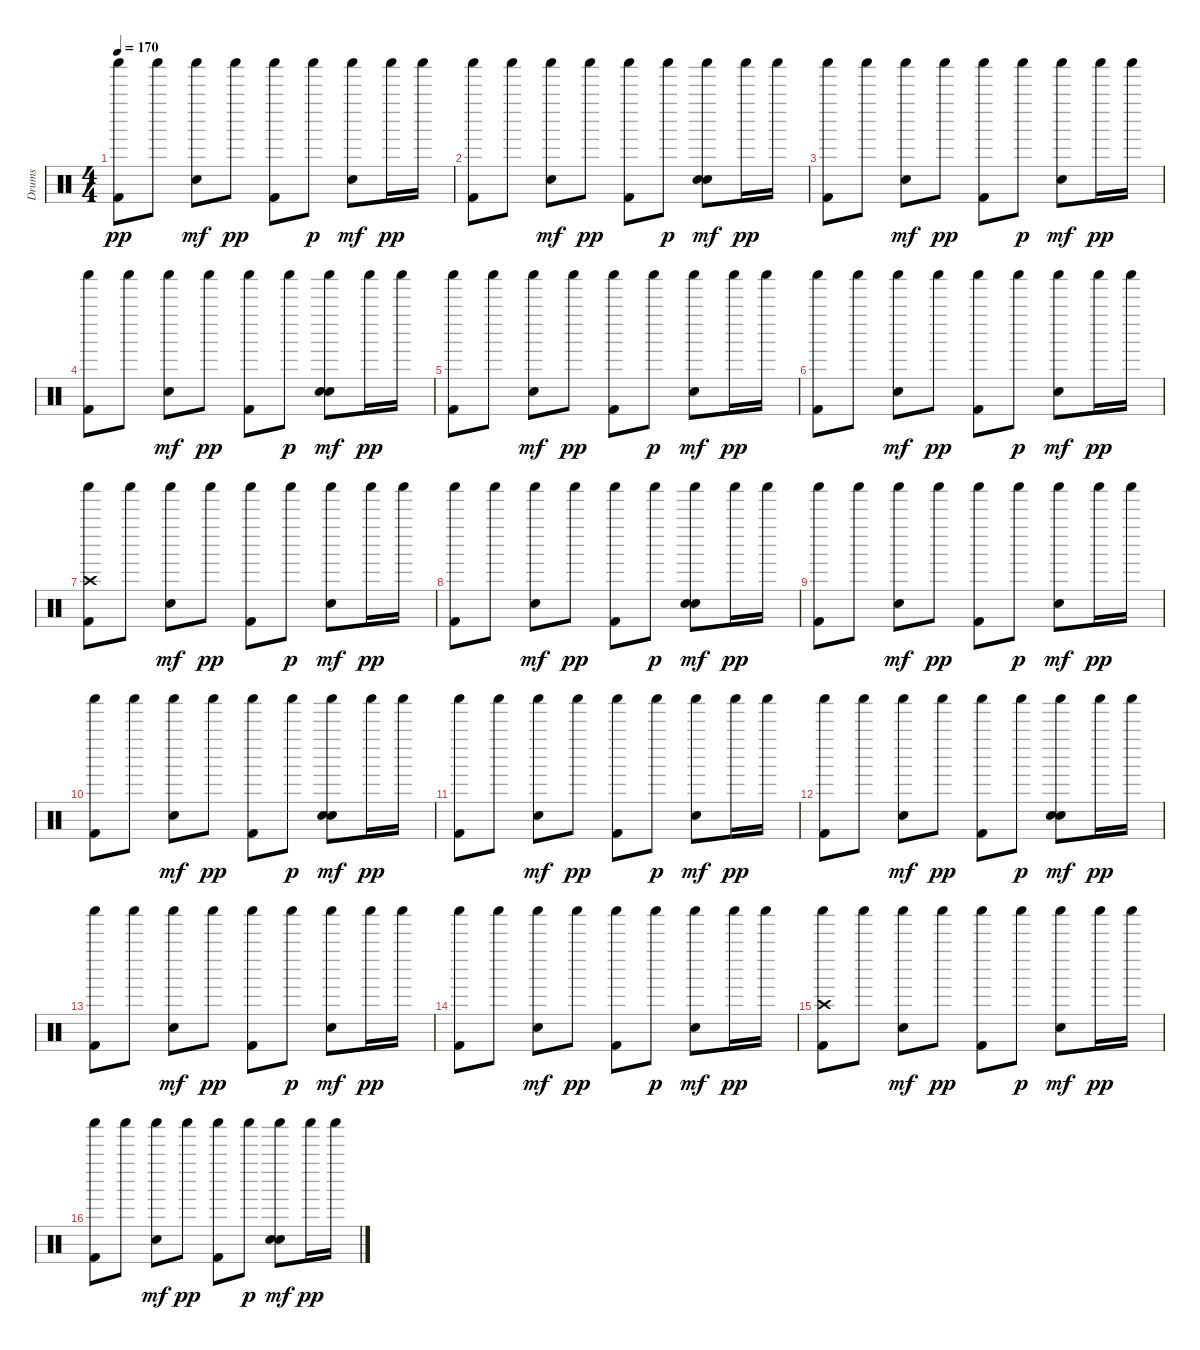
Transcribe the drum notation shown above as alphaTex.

\track ("Drums" "Drums") {instrument percussion}
\staff {score}
\articulation defaults
\ts (4 4)
\tempo 170
\clef neutral
\ks c
("Kick (hit) 2" "Shaker (hit)").8{dy pp} "Shaker (hit)".8 ("Snare (hit) 2" "Shaker (hit)").8{dy mf} "Shaker (hit)".8{dy pp} ("Kick (hit) 2" "Shaker (hit)").8 "Shaker (hit)".8{dy p} ("Snare (hit) 2" "Shaker (hit)").8{dy mf} "Shaker (hit)".16{dy pp} "Shaker (hit)".16 |
("Kick (hit) 2" "Shaker (hit)").8 "Shaker (hit)".8 ("Snare (hit) 2" "Shaker (hit)").8{dy mf} "Shaker (hit)".8{dy pp} ("Kick (hit) 2" "Shaker (hit)").8 "Shaker (hit)".8{dy p} ("Snare (hit) 2" "Shaker (hit)" "Hand Clap (hit)").8{dy mf} "Shaker (hit)".16{dy pp} "Shaker (hit)".16 |
("Kick (hit) 2" "Shaker (hit)").8 "Shaker (hit)".8 ("Snare (hit) 2" "Shaker (hit)").8{dy mf} "Shaker (hit)".8{dy pp} ("Kick (hit) 2" "Shaker (hit)").8 "Shaker (hit)".8{dy p} ("Snare (hit) 2" "Shaker (hit)").8{dy mf} "Shaker (hit)".16{dy pp} "Shaker (hit)".16 |
("Kick (hit) 2" "Shaker (hit)").8 "Shaker (hit)".8 ("Snare (hit) 2" "Shaker (hit)").8{dy mf} "Shaker (hit)".8{dy pp} ("Kick (hit) 2" "Shaker (hit)").8 "Shaker (hit)".8{dy p} ("Snare (hit) 2" "Shaker (hit)" "Hand Clap (hit)").8{dy mf} "Shaker (hit)".16{dy pp} "Shaker (hit)".16 |
("Kick (hit) 2" "Shaker (hit)").8 "Shaker (hit)".8 ("Snare (hit) 2" "Shaker (hit)").8{dy mf} "Shaker (hit)".8{dy pp} ("Kick (hit) 2" "Shaker (hit)").8 "Shaker (hit)".8{dy p} ("Snare (hit) 2" "Shaker (hit)").8{dy mf} "Shaker (hit)".16{dy pp} "Shaker (hit)".16 |
("Kick (hit) 2" "Shaker (hit)").8 "Shaker (hit)".8 ("Snare (hit) 2" "Shaker (hit)").8{dy mf} "Shaker (hit)".8{dy pp} ("Kick (hit) 2" "Shaker (hit)").8 "Shaker (hit)".8{dy p} ("Snare (hit) 2" "Shaker (hit)").8{dy mf} "Shaker (hit)".16{dy pp} "Shaker (hit)".16 |
("Crash high (hit)" "Kick (hit) 2" "Shaker (hit)").8 "Shaker (hit)".8 ("Snare (hit) 2" "Shaker (hit)").8{dy mf} "Shaker (hit)".8{dy pp} ("Kick (hit) 2" "Shaker (hit)").8 "Shaker (hit)".8{dy p} ("Snare (hit) 2" "Shaker (hit)").8{dy mf} "Shaker (hit)".16{dy pp} "Shaker (hit)".16 |
("Kick (hit) 2" "Shaker (hit)").8 "Shaker (hit)".8 ("Snare (hit) 2" "Shaker (hit)").8{dy mf} "Shaker (hit)".8{dy pp} ("Kick (hit) 2" "Shaker (hit)").8 "Shaker (hit)".8{dy p} ("Snare (hit) 2" "Shaker (hit)" "Hand Clap (hit)").8{dy mf} "Shaker (hit)".16{dy pp} "Shaker (hit)".16 |
("Kick (hit) 2" "Shaker (hit)").8 "Shaker (hit)".8 ("Snare (hit) 2" "Shaker (hit)").8{dy mf} "Shaker (hit)".8{dy pp} ("Kick (hit) 2" "Shaker (hit)").8 "Shaker (hit)".8{dy p} ("Snare (hit) 2" "Shaker (hit)").8{dy mf} "Shaker (hit)".16{dy pp} "Shaker (hit)".16 |
("Kick (hit) 2" "Shaker (hit)").8 "Shaker (hit)".8 ("Snare (hit) 2" "Shaker (hit)").8{dy mf} "Shaker (hit)".8{dy pp} ("Kick (hit) 2" "Shaker (hit)").8 "Shaker (hit)".8{dy p} ("Snare (hit) 2" "Shaker (hit)" "Hand Clap (hit)").8{dy mf} "Shaker (hit)".16{dy pp} "Shaker (hit)".16 |
("Kick (hit) 2" "Shaker (hit)").8 "Shaker (hit)".8 ("Snare (hit) 2" "Shaker (hit)").8{dy mf} "Shaker (hit)".8{dy pp} ("Kick (hit) 2" "Shaker (hit)").8 "Shaker (hit)".8{dy p} ("Snare (hit) 2" "Shaker (hit)").8{dy mf} "Shaker (hit)".16{dy pp} "Shaker (hit)".16 |
("Kick (hit) 2" "Shaker (hit)").8 "Shaker (hit)".8 ("Snare (hit) 2" "Shaker (hit)").8{dy mf} "Shaker (hit)".8{dy pp} ("Kick (hit) 2" "Shaker (hit)").8 "Shaker (hit)".8{dy p} ("Snare (hit) 2" "Shaker (hit)" "Hand Clap (hit)").8{dy mf} "Shaker (hit)".16{dy pp} "Shaker (hit)".16 |
("Kick (hit) 2" "Shaker (hit)").8 "Shaker (hit)".8 ("Snare (hit) 2" "Shaker (hit)").8{dy mf} "Shaker (hit)".8{dy pp} ("Kick (hit) 2" "Shaker (hit)").8 "Shaker (hit)".8{dy p} ("Snare (hit) 2" "Shaker (hit)").8{dy mf} "Shaker (hit)".16{dy pp} "Shaker (hit)".16 |
("Kick (hit) 2" "Shaker (hit)").8 "Shaker (hit)".8 ("Snare (hit) 2" "Shaker (hit)").8{dy mf} "Shaker (hit)".8{dy pp} ("Kick (hit) 2" "Shaker (hit)").8 "Shaker (hit)".8{dy p} ("Snare (hit) 2" "Shaker (hit)").8{dy mf} "Shaker (hit)".16{dy pp} "Shaker (hit)".16 |
("Crash high (hit)" "Kick (hit) 2" "Shaker (hit)").8 "Shaker (hit)".8 ("Snare (hit) 2" "Shaker (hit)").8{dy mf} "Shaker (hit)".8{dy pp} ("Kick (hit) 2" "Shaker (hit)").8 "Shaker (hit)".8{dy p} ("Snare (hit) 2" "Shaker (hit)").8{dy mf} "Shaker (hit)".16{dy pp} "Shaker (hit)".16 |
("Kick (hit) 2" "Shaker (hit)").8 "Shaker (hit)".8 ("Snare (hit) 2" "Shaker (hit)").8{dy mf} "Shaker (hit)".8{dy pp} ("Kick (hit) 2" "Shaker (hit)").8 "Shaker (hit)".8{dy p} ("Snare (hit) 2" "Shaker (hit)" "Hand Clap (hit)").8{dy mf} "Shaker (hit)".16{dy pp} "Shaker (hit)".16
